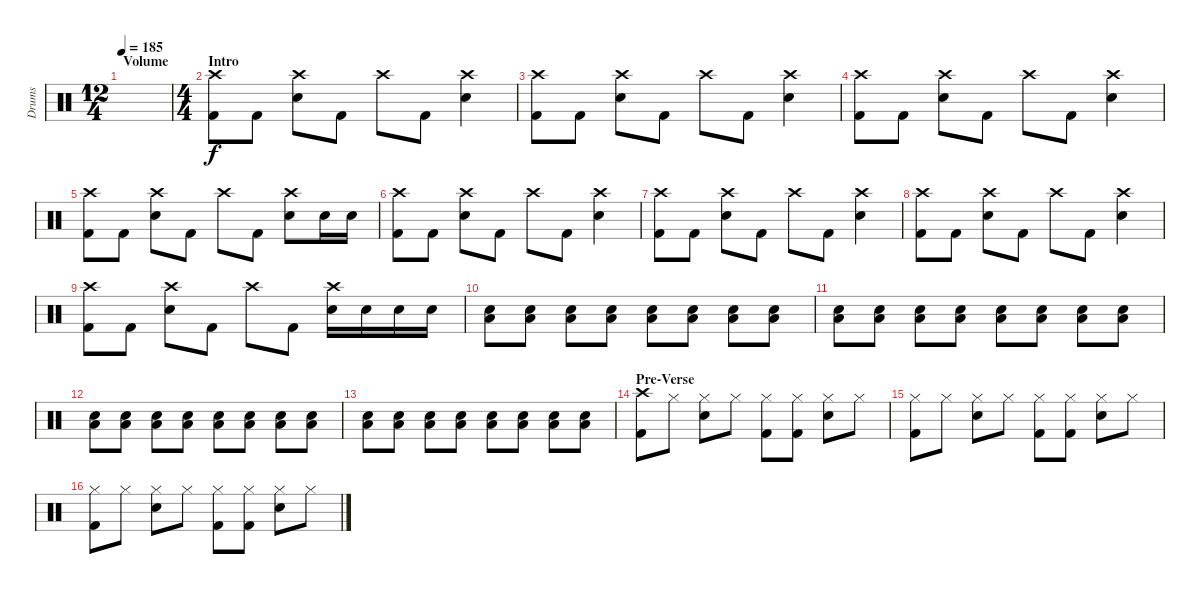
\track ("Drums" "Drums") {instrument percussion}
\staff {score}
\articulation defaults
\ts (12 4)
\section ("" "Volume")
\tempo 185
\clef neutral
\ks c
|
\ts (4 4)
\section ("" "Intro")
("Crash high (hit)" "Kick (hit) 2").8 "Kick (hit) 2".8 ("Crash high (hit)" "Electric Snare (hit)").8 "Kick (hit) 2".8 "Crash high (hit)".8 "Kick (hit) 2".8 ("Crash high (hit)" "Electric Snare (hit)").4 |
("Crash high (hit)" "Kick (hit) 2").8 "Kick (hit) 2".8 ("Crash high (hit)" "Electric Snare (hit)").8 "Kick (hit) 2".8 "Crash high (hit)".8 "Kick (hit) 2".8 ("Crash high (hit)" "Electric Snare (hit)").4 |
("Crash high (hit)" "Kick (hit) 2").8 "Kick (hit) 2".8 ("Crash high (hit)" "Electric Snare (hit)").8 "Kick (hit) 2".8 "Crash high (hit)".8 "Kick (hit) 2".8 ("Crash high (hit)" "Electric Snare (hit)").4 |
("Crash high (hit)" "Kick (hit) 2").8 "Kick (hit) 2".8 ("Crash high (hit)" "Electric Snare (hit)").8 "Kick (hit) 2".8 "Crash high (hit)".8 "Kick (hit) 2".8 ("Crash high (hit)" "Electric Snare (hit)").8 "Electric Snare (hit)".16 "Electric Snare (hit)".16 |
("Crash high (hit)" "Kick (hit) 2").8 "Kick (hit) 2".8 ("Crash high (hit)" "Electric Snare (hit)").8 "Kick (hit) 2".8 "Crash high (hit)".8 "Kick (hit) 2".8 ("Crash high (hit)" "Electric Snare (hit)").4 |
("Crash high (hit)" "Kick (hit) 2").8 "Kick (hit) 2".8 ("Crash high (hit)" "Electric Snare (hit)").8 "Kick (hit) 2".8 "Crash high (hit)".8 "Kick (hit) 2".8 ("Crash high (hit)" "Electric Snare (hit)").4 |
("Crash high (hit)" "Kick (hit) 2").8 "Kick (hit) 2".8 ("Crash high (hit)" "Electric Snare (hit)").8 "Kick (hit) 2".8 "Crash high (hit)".8 "Kick (hit) 2".8 ("Crash high (hit)" "Electric Snare (hit)").4 |
("Crash high (hit)" "Kick (hit) 2").8 "Kick (hit) 2".8 ("Crash high (hit)" "Electric Snare (hit)").8 "Kick (hit) 2".8 "Crash high (hit)".8 "Kick (hit) 2".8 ("Crash high (hit)" "Electric Snare (hit)").16 "Electric Snare (hit)".16 "Electric Snare (hit)".16 "Electric Snare (hit)".16 |
("Low Tom (hit)" "Electric Snare (hit)").8 ("Low Tom (hit)" "Electric Snare (hit)").8 ("Low Tom (hit)" "Electric Snare (hit)").8 ("Low Tom (hit)" "Electric Snare (hit)").8 ("Low Tom (hit)" "Electric Snare (hit)").8 ("Low Tom (hit)" "Electric Snare (hit)").8 ("Low Tom (hit)" "Electric Snare (hit)").8 ("Low Tom (hit)" "Electric Snare (hit)").8 |
("Low Tom (hit)" "Electric Snare (hit)").8 ("Low Tom (hit)" "Electric Snare (hit)").8 ("Low Tom (hit)" "Electric Snare (hit)").8 ("Low Tom (hit)" "Electric Snare (hit)").8 ("Low Tom (hit)" "Electric Snare (hit)").8 ("Low Tom (hit)" "Electric Snare (hit)").8 ("Low Tom (hit)" "Electric Snare (hit)").8 ("Low Tom (hit)" "Electric Snare (hit)").8 |
("Low Tom (hit)" "Electric Snare (hit)").8 ("Low Tom (hit)" "Electric Snare (hit)").8 ("Low Tom (hit)" "Electric Snare (hit)").8 ("Low Tom (hit)" "Electric Snare (hit)").8 ("Low Tom (hit)" "Electric Snare (hit)").8 ("Low Tom (hit)" "Electric Snare (hit)").8 ("Low Tom (hit)" "Electric Snare (hit)").8 ("Low Tom (hit)" "Electric Snare (hit)").8 |
("Low Tom (hit)" "Electric Snare (hit)").8 ("Low Tom (hit)" "Electric Snare (hit)").8 ("Low Tom (hit)" "Electric Snare (hit)").8 ("Low Tom (hit)" "Electric Snare (hit)").8 ("Low Tom (hit)" "Electric Snare (hit)").8 ("Low Tom (hit)" "Electric Snare (hit)").8 ("Low Tom (hit)" "Electric Snare (hit)").8 ("Low Tom (hit)" "Electric Snare (hit)").8 |
\section ("" "Pre-Verse")
("Crash high (hit)" "Kick (hit) 2").8 "Hi-Hat (closed)".8 ("Hi-Hat (closed)" "Electric Snare (hit)").8 "Hi-Hat (closed)".8 ("Hi-Hat (closed)" "Kick (hit) 2").8 ("Hi-Hat (closed)" "Kick (hit) 2").8 ("Hi-Hat (closed)" "Electric Snare (hit)").8 "Hi-Hat (closed)".8 |
("Hi-Hat (closed)" "Kick (hit) 2").8 "Hi-Hat (closed)".8 ("Hi-Hat (closed)" "Electric Snare (hit)").8 "Hi-Hat (closed)".8 ("Hi-Hat (closed)" "Kick (hit) 2").8 ("Hi-Hat (closed)" "Kick (hit) 2").8 ("Hi-Hat (closed)" "Electric Snare (hit)").8 "Hi-Hat (closed)".8 |
("Hi-Hat (closed)" "Kick (hit) 2").8 "Hi-Hat (closed)".8 ("Hi-Hat (closed)" "Electric Snare (hit)").8 "Hi-Hat (closed)".8 ("Hi-Hat (closed)" "Kick (hit) 2").8 ("Hi-Hat (closed)" "Kick (hit) 2").8 ("Hi-Hat (closed)" "Electric Snare (hit)").8 "Hi-Hat (closed)".8
